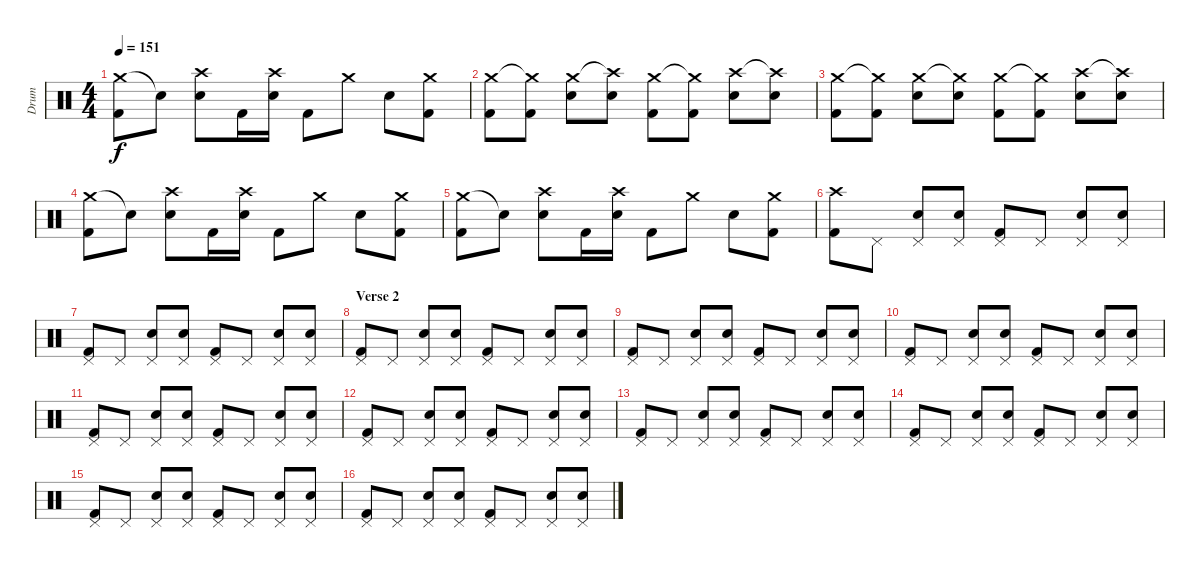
\track ("Drum" "Drum") {instrument percussion}
\staff {score}
\articulation defaults
\ts (4 4)
\tempo 151
\clef neutral
\ks c
("Crash medium (hit)" "Kick (hit) 2").8{dy f} "Snare (hit)"{t}.8 ("Crash high (hit)" "Electric Snare (hit)").8 "Kick (hit) 2".16 ("Crash high (hit)" "Electric Snare (hit)").16 "Kick (hit) 2".8 "Crash medium (hit)".8 "Electric Snare (hit)".8 ("Crash medium (hit)" "Kick (hit) 2").8 |
("Crash medium (hit)" "Kick (hit) 2").8 ("Crash medium (hit)"{t} "Kick (hit) 2").8 ("Crash medium (hit)" "Electric Snare (hit)").8 ("Crash high (hit)"{t} "Electric Snare (hit)").8 ("Crash medium (hit)" "Kick (hit) 2").8 ("Crash medium (hit)"{t} "Kick (hit) 2").8 ("Crash high (hit)" "Electric Snare (hit)").8 ("Crash high (hit)"{t} "Electric Snare (hit)").8 |
("Crash medium (hit)" "Kick (hit) 2").8 ("Crash medium (hit)"{t} "Kick (hit) 2").8 ("Crash medium (hit)" "Electric Snare (hit)").8 ("Crash medium (hit)"{t} "Electric Snare (hit)").8 ("Crash medium (hit)" "Kick (hit) 2").8 ("Crash medium (hit)"{t} "Kick (hit) 2").8 ("Crash high (hit)" "Electric Snare (hit)").8 ("Crash high (hit)"{t} "Electric Snare (hit)").8 |
("Crash medium (hit)" "Kick (hit) 2").8 "Snare (hit)"{t}.8 ("Crash high (hit)" "Electric Snare (hit)").8 "Kick (hit) 2".16 ("Crash high (hit)" "Electric Snare (hit)").16 "Kick (hit) 2".8 "Crash medium (hit)".8 "Electric Snare (hit)".8 ("Crash medium (hit)" "Kick (hit) 2").8 |
("Crash medium (hit)" "Kick (hit) 2").8 "Snare (hit)"{t}.8 ("Crash high (hit)" "Electric Snare (hit)").8 "Kick (hit) 2".16 ("Crash high (hit)" "Electric Snare (hit)").16 "Kick (hit) 2".8 "Crash medium (hit)".8 "Electric Snare (hit)".8 ("Crash medium (hit)" "Kick (hit) 2").8 |
("Crash high (hit)" "Kick (hit) 2").8 "Pedal Hi-Hat (hit)".8 ("Pedal Hi-Hat (hit)" "Electric Snare (hit)").8 ("Pedal Hi-Hat (hit)" "Electric Snare (hit)").8 ("Pedal Hi-Hat (hit)" "Kick (hit) 2").8 "Pedal Hi-Hat (hit)".8 ("Pedal Hi-Hat (hit)" "Electric Snare (hit)").8 ("Pedal Hi-Hat (hit)" "Electric Snare (hit)").8 |
("Pedal Hi-Hat (hit)" "Kick (hit) 2").8 "Pedal Hi-Hat (hit)".8 ("Pedal Hi-Hat (hit)" "Electric Snare (hit)").8 ("Pedal Hi-Hat (hit)" "Electric Snare (hit)").8 ("Pedal Hi-Hat (hit)" "Kick (hit) 2").8 "Pedal Hi-Hat (hit)".8 ("Pedal Hi-Hat (hit)" "Electric Snare (hit)").8 ("Pedal Hi-Hat (hit)" "Electric Snare (hit)").8 |
\section ("" "Verse 2")
("Pedal Hi-Hat (hit)" "Kick (hit) 2").8 "Pedal Hi-Hat (hit)".8 ("Pedal Hi-Hat (hit)" "Electric Snare (hit)").8 ("Pedal Hi-Hat (hit)" "Electric Snare (hit)").8 ("Pedal Hi-Hat (hit)" "Kick (hit) 2").8 "Pedal Hi-Hat (hit)".8 ("Pedal Hi-Hat (hit)" "Electric Snare (hit)").8 ("Pedal Hi-Hat (hit)" "Electric Snare (hit)").8 |
("Pedal Hi-Hat (hit)" "Kick (hit) 2").8 "Pedal Hi-Hat (hit)".8 ("Pedal Hi-Hat (hit)" "Electric Snare (hit)").8 ("Pedal Hi-Hat (hit)" "Electric Snare (hit)").8 ("Pedal Hi-Hat (hit)" "Kick (hit) 2").8 "Pedal Hi-Hat (hit)".8 ("Pedal Hi-Hat (hit)" "Electric Snare (hit)").8 ("Pedal Hi-Hat (hit)" "Electric Snare (hit)").8 |
("Pedal Hi-Hat (hit)" "Kick (hit) 2").8 "Pedal Hi-Hat (hit)".8 ("Pedal Hi-Hat (hit)" "Electric Snare (hit)").8 ("Pedal Hi-Hat (hit)" "Electric Snare (hit)").8 ("Pedal Hi-Hat (hit)" "Kick (hit) 2").8 "Pedal Hi-Hat (hit)".8 ("Pedal Hi-Hat (hit)" "Electric Snare (hit)").8 ("Pedal Hi-Hat (hit)" "Electric Snare (hit)").8 |
("Pedal Hi-Hat (hit)" "Kick (hit) 2").8 "Pedal Hi-Hat (hit)".8 ("Pedal Hi-Hat (hit)" "Electric Snare (hit)").8 ("Pedal Hi-Hat (hit)" "Electric Snare (hit)").8 ("Pedal Hi-Hat (hit)" "Kick (hit) 2").8 "Pedal Hi-Hat (hit)".8 ("Pedal Hi-Hat (hit)" "Electric Snare (hit)").8 ("Pedal Hi-Hat (hit)" "Electric Snare (hit)").8 |
("Pedal Hi-Hat (hit)" "Kick (hit) 2").8 "Pedal Hi-Hat (hit)".8 ("Pedal Hi-Hat (hit)" "Electric Snare (hit)").8 ("Pedal Hi-Hat (hit)" "Electric Snare (hit)").8 ("Pedal Hi-Hat (hit)" "Kick (hit) 2").8 "Pedal Hi-Hat (hit)".8 ("Pedal Hi-Hat (hit)" "Electric Snare (hit)").8 ("Pedal Hi-Hat (hit)" "Electric Snare (hit)").8 |
("Pedal Hi-Hat (hit)" "Kick (hit) 2").8 "Pedal Hi-Hat (hit)".8 ("Pedal Hi-Hat (hit)" "Electric Snare (hit)").8 ("Pedal Hi-Hat (hit)" "Electric Snare (hit)").8 ("Pedal Hi-Hat (hit)" "Kick (hit) 2").8 "Pedal Hi-Hat (hit)".8 ("Pedal Hi-Hat (hit)" "Electric Snare (hit)").8 ("Pedal Hi-Hat (hit)" "Electric Snare (hit)").8 |
("Pedal Hi-Hat (hit)" "Kick (hit) 2").8 "Pedal Hi-Hat (hit)".8 ("Pedal Hi-Hat (hit)" "Electric Snare (hit)").8 ("Pedal Hi-Hat (hit)" "Electric Snare (hit)").8 ("Pedal Hi-Hat (hit)" "Kick (hit) 2").8 "Pedal Hi-Hat (hit)".8 ("Pedal Hi-Hat (hit)" "Electric Snare (hit)").8 ("Pedal Hi-Hat (hit)" "Electric Snare (hit)").8 |
("Pedal Hi-Hat (hit)" "Kick (hit) 2").8 "Pedal Hi-Hat (hit)".8 ("Pedal Hi-Hat (hit)" "Electric Snare (hit)").8 ("Pedal Hi-Hat (hit)" "Electric Snare (hit)").8 ("Pedal Hi-Hat (hit)" "Kick (hit) 2").8 "Pedal Hi-Hat (hit)".8 ("Pedal Hi-Hat (hit)" "Electric Snare (hit)").8 ("Pedal Hi-Hat (hit)" "Electric Snare (hit)").8 |
("Pedal Hi-Hat (hit)" "Kick (hit) 2").8 "Pedal Hi-Hat (hit)".8 ("Pedal Hi-Hat (hit)" "Electric Snare (hit)").8 ("Pedal Hi-Hat (hit)" "Electric Snare (hit)").8 ("Pedal Hi-Hat (hit)" "Kick (hit) 2").8 "Pedal Hi-Hat (hit)".8 ("Pedal Hi-Hat (hit)" "Electric Snare (hit)").8 ("Pedal Hi-Hat (hit)" "Electric Snare (hit)").8
